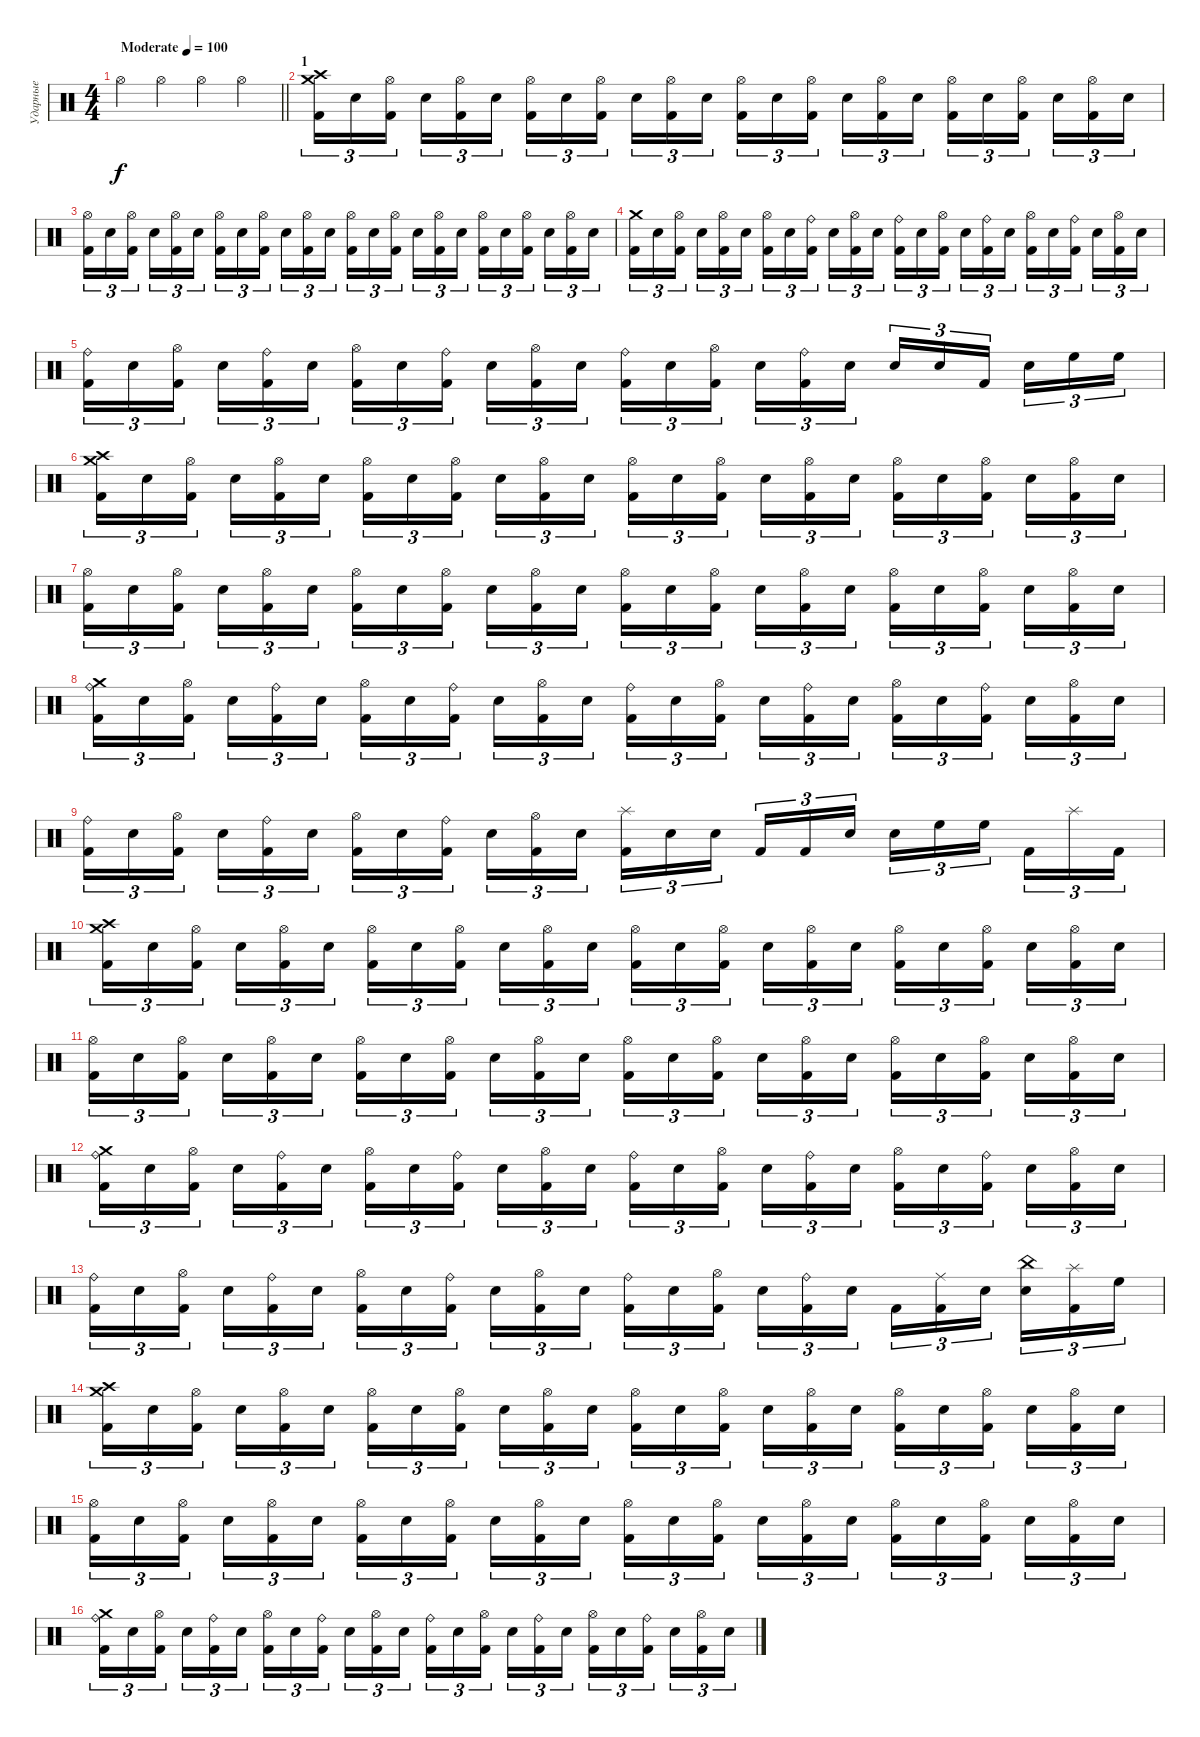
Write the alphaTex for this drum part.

\track ("Ударные" "Ударные") {instrument percussion}
\staff {score}
\articulation defaults
\ts (4 4)
\tempo (100 "Moderate")
\clef neutral
\barLineRight lightlight
\ks c "Hi-Hat (open)".4{dy f} "Hi-Hat (open)".4 "Hi-Hat (open)".4 "Hi-Hat (open)".4
|
\section ("" "1")
("Crash high (hit)" "Crash medium (hit)" "Kick (hit) 2").16{tu (3 2)} "Electric Snare (hit)".16{tu (3 2)} ("Hi-Hat (open)" "Kick (hit) 2").16{tu (3 2) beam splitsecondary} "Electric Snare (hit)".16{tu (3 2)} ("Hi-Hat (open)" "Kick (hit) 2").16{tu (3 2)} "Electric Snare (hit)".16{tu (3 2)} ("Hi-Hat (open)" "Kick (hit) 2").16{tu (3 2)} "Electric Snare (hit)".16{tu (3 2)} ("Hi-Hat (open)" "Kick (hit) 2").16{tu (3 2) beam splitsecondary} "Electric Snare (hit)".16{tu (3 2)} ("Hi-Hat (open)" "Kick (hit) 2").16{tu (3 2)} "Electric Snare (hit)".16{tu (3 2)} ("Hi-Hat (open)" "Kick (hit) 2").16{tu (3 2)} "Electric Snare (hit)".16{tu (3 2)} ("Hi-Hat (open)" "Kick (hit) 2").16{tu (3 2) beam splitsecondary} "Electric Snare (hit)".16{tu (3 2)} ("Hi-Hat (open)" "Kick (hit) 2").16{tu (3 2)} "Electric Snare (hit)".16{tu (3 2)} ("Hi-Hat (open)" "Kick (hit) 2").16{tu (3 2)} "Electric Snare (hit)".16{tu (3 2)} ("Hi-Hat (open)" "Kick (hit) 2").16{tu (3 2) beam splitsecondary} "Electric Snare (hit)".16{tu (3 2)} ("Hi-Hat (open)" "Kick (hit) 2").16{tu (3 2)} "Electric Snare (hit)".16{tu (3 2)} |
("Hi-Hat (open)" "Kick (hit) 2").16{tu (3 2)} "Electric Snare (hit)".16{tu (3 2)} ("Hi-Hat (open)" "Kick (hit) 2").16{tu (3 2) beam splitsecondary} "Electric Snare (hit)".16{tu (3 2)} ("Hi-Hat (open)" "Kick (hit) 2").16{tu (3 2)} "Electric Snare (hit)".16{tu (3 2)} ("Hi-Hat (open)" "Kick (hit) 2").16{tu (3 2)} "Electric Snare (hit)".16{tu (3 2)} ("Hi-Hat (open)" "Kick (hit) 2").16{tu (3 2) beam splitsecondary} "Electric Snare (hit)".16{tu (3 2)} ("Hi-Hat (open)" "Kick (hit) 2").16{tu (3 2)} "Electric Snare (hit)".16{tu (3 2)} ("Hi-Hat (open)" "Kick (hit) 2").16{tu (3 2)} "Electric Snare (hit)".16{tu (3 2)} ("Hi-Hat (open)" "Kick (hit) 2").16{tu (3 2) beam splitsecondary} "Electric Snare (hit)".16{tu (3 2)} ("Hi-Hat (open)" "Kick (hit) 2").16{tu (3 2)} "Electric Snare (hit)".16{tu (3 2)} ("Hi-Hat (open)" "Kick (hit) 2").16{tu (3 2)} "Electric Snare (hit)".16{tu (3 2)} ("Hi-Hat (open)" "Kick (hit) 2").16{tu (3 2) beam splitsecondary} "Electric Snare (hit)".16{tu (3 2)} ("Hi-Hat (open)" "Kick (hit) 2").16{tu (3 2)} "Electric Snare (hit)".16{tu (3 2)} |
("Crash medium (hit)" "Kick (hit) 2").16{tu (3 2)} "Electric Snare (hit)".16{tu (3 2)} ("Hi-Hat (open)" "Kick (hit) 2").16{tu (3 2) beam splitsecondary} "Electric Snare (hit)".16{tu (3 2)} ("Hi-Hat (open)" "Kick (hit) 2").16{tu (3 2)} "Electric Snare (hit)".16{tu (3 2)} ("Hi-Hat (open)" "Kick (hit) 2").16{tu (3 2)} "Electric Snare (hit)".16{tu (3 2)} ("Ride (bell)" "Kick (hit) 2").16{tu (3 2) beam splitsecondary} "Electric Snare (hit)".16{tu (3 2)} ("Hi-Hat (open)" "Kick (hit) 2").16{tu (3 2)} "Electric Snare (hit)".16{tu (3 2)} ("Ride (bell)" "Kick (hit) 2").16{tu (3 2)} "Electric Snare (hit)".16{tu (3 2)} ("Hi-Hat (open)" "Kick (hit) 2").16{tu (3 2) beam splitsecondary} "Electric Snare (hit)".16{tu (3 2)} ("Ride (bell)" "Kick (hit) 2").16{tu (3 2)} "Electric Snare (hit)".16{tu (3 2)} ("Hi-Hat (open)" "Kick (hit) 2").16{tu (3 2)} "Electric Snare (hit)".16{tu (3 2)} ("Ride (bell)" "Kick (hit) 2").16{tu (3 2) beam splitsecondary} "Electric Snare (hit)".16{tu (3 2)} ("Hi-Hat (open)" "Kick (hit) 2").16{tu (3 2)} "Electric Snare (hit)".16{tu (3 2)} |
("Ride (bell)" "Kick (hit) 2").16{tu (3 2)} "Electric Snare (hit)".16{tu (3 2)} ("Hi-Hat (open)" "Kick (hit) 2").16{tu (3 2) beam splitsecondary} "Electric Snare (hit)".16{tu (3 2)} ("Ride (bell)" "Kick (hit) 2").16{tu (3 2)} "Electric Snare (hit)".16{tu (3 2)} ("Hi-Hat (open)" "Kick (hit) 2").16{tu (3 2)} "Electric Snare (hit)".16{tu (3 2)} ("Ride (bell)" "Kick (hit) 2").16{tu (3 2) beam splitsecondary} "Electric Snare (hit)".16{tu (3 2)} ("Hi-Hat (open)" "Kick (hit) 2").16{tu (3 2)} "Electric Snare (hit)".16{tu (3 2)} ("Ride (bell)" "Kick (hit) 2").16{tu (3 2)} "Electric Snare (hit)".16{tu (3 2)} ("Hi-Hat (open)" "Kick (hit) 2").16{tu (3 2) beam splitsecondary} "Electric Snare (hit)".16{tu (3 2)} ("Ride (bell)" "Kick (hit) 2").16{tu (3 2)} "Electric Snare (hit)".16{tu (3 2)} "Electric Snare (hit)".16{tu (3 2)} "Electric Snare (hit)".16{tu (3 2)} "Kick (hit) 2".16{tu (3 2) beam splitsecondary} "Electric Snare (hit)".16{tu (3 2)} "High Floor Tom (hit)".16{tu (3 2)} "High Floor Tom (hit)".16{tu (3 2)} |
("Crash high (hit)" "Crash medium (hit)" "Kick (hit) 2").16{tu (3 2)} "Electric Snare (hit)".16{tu (3 2)} ("Hi-Hat (open)" "Kick (hit) 2").16{tu (3 2) beam splitsecondary} "Electric Snare (hit)".16{tu (3 2)} ("Hi-Hat (open)" "Kick (hit) 2").16{tu (3 2)} "Electric Snare (hit)".16{tu (3 2)} ("Hi-Hat (open)" "Kick (hit) 2").16{tu (3 2)} "Electric Snare (hit)".16{tu (3 2)} ("Hi-Hat (open)" "Kick (hit) 2").16{tu (3 2) beam splitsecondary} "Electric Snare (hit)".16{tu (3 2)} ("Hi-Hat (open)" "Kick (hit) 2").16{tu (3 2)} "Electric Snare (hit)".16{tu (3 2)} ("Hi-Hat (open)" "Kick (hit) 2").16{tu (3 2)} "Electric Snare (hit)".16{tu (3 2)} ("Hi-Hat (open)" "Kick (hit) 2").16{tu (3 2) beam splitsecondary} "Electric Snare (hit)".16{tu (3 2)} ("Hi-Hat (open)" "Kick (hit) 2").16{tu (3 2)} "Electric Snare (hit)".16{tu (3 2)} ("Hi-Hat (open)" "Kick (hit) 2").16{tu (3 2)} "Electric Snare (hit)".16{tu (3 2)} ("Hi-Hat (open)" "Kick (hit) 2").16{tu (3 2) beam splitsecondary} "Electric Snare (hit)".16{tu (3 2)} ("Hi-Hat (open)" "Kick (hit) 2").16{tu (3 2)} "Electric Snare (hit)".16{tu (3 2)} |
("Hi-Hat (open)" "Kick (hit) 2").16{tu (3 2)} "Electric Snare (hit)".16{tu (3 2)} ("Hi-Hat (open)" "Kick (hit) 2").16{tu (3 2) beam splitsecondary} "Electric Snare (hit)".16{tu (3 2)} ("Hi-Hat (open)" "Kick (hit) 2").16{tu (3 2)} "Electric Snare (hit)".16{tu (3 2)} ("Hi-Hat (open)" "Kick (hit) 2").16{tu (3 2)} "Electric Snare (hit)".16{tu (3 2)} ("Hi-Hat (open)" "Kick (hit) 2").16{tu (3 2) beam splitsecondary} "Electric Snare (hit)".16{tu (3 2)} ("Hi-Hat (open)" "Kick (hit) 2").16{tu (3 2)} "Electric Snare (hit)".16{tu (3 2)} ("Hi-Hat (open)" "Kick (hit) 2").16{tu (3 2)} "Electric Snare (hit)".16{tu (3 2)} ("Hi-Hat (open)" "Kick (hit) 2").16{tu (3 2) beam splitsecondary} "Electric Snare (hit)".16{tu (3 2)} ("Hi-Hat (open)" "Kick (hit) 2").16{tu (3 2)} "Electric Snare (hit)".16{tu (3 2)} ("Hi-Hat (open)" "Kick (hit) 2").16{tu (3 2)} "Electric Snare (hit)".16{tu (3 2)} ("Hi-Hat (open)" "Kick (hit) 2").16{tu (3 2) beam splitsecondary} "Electric Snare (hit)".16{tu (3 2)} ("Hi-Hat (open)" "Kick (hit) 2").16{tu (3 2)} "Electric Snare (hit)".16{tu (3 2)} |
("Ride (bell)" "Crash medium (hit)" "Kick (hit) 2").16{tu (3 2)} "Electric Snare (hit)".16{tu (3 2)} ("Hi-Hat (open)" "Kick (hit) 2").16{tu (3 2) beam splitsecondary} "Electric Snare (hit)".16{tu (3 2)} ("Ride (bell)" "Kick (hit) 2").16{tu (3 2)} "Electric Snare (hit)".16{tu (3 2)} ("Hi-Hat (open)" "Kick (hit) 2").16{tu (3 2)} "Electric Snare (hit)".16{tu (3 2)} ("Ride (bell)" "Kick (hit) 2").16{tu (3 2) beam splitsecondary} "Electric Snare (hit)".16{tu (3 2)} ("Hi-Hat (open)" "Kick (hit) 2").16{tu (3 2)} "Electric Snare (hit)".16{tu (3 2)} ("Ride (bell)" "Kick (hit) 2").16{tu (3 2)} "Electric Snare (hit)".16{tu (3 2)} ("Hi-Hat (open)" "Kick (hit) 2").16{tu (3 2) beam splitsecondary} "Electric Snare (hit)".16{tu (3 2)} ("Ride (bell)" "Kick (hit) 2").16{tu (3 2)} "Electric Snare (hit)".16{tu (3 2)} ("Hi-Hat (open)" "Kick (hit) 2").16{tu (3 2)} "Electric Snare (hit)".16{tu (3 2)} ("Ride (bell)" "Kick (hit) 2").16{tu (3 2) beam splitsecondary} "Electric Snare (hit)".16{tu (3 2)} ("Hi-Hat (open)" "Kick (hit) 2").16{tu (3 2)} "Electric Snare (hit)".16{tu (3 2)} |
("Ride (bell)" "Kick (hit) 2").16{tu (3 2)} "Electric Snare (hit)".16{tu (3 2)} ("Hi-Hat (open)" "Kick (hit) 2").16{tu (3 2) beam splitsecondary} "Electric Snare (hit)".16{tu (3 2)} ("Ride (bell)" "Kick (hit) 2").16{tu (3 2)} "Electric Snare (hit)".16{tu (3 2)} ("Hi-Hat (open)" "Kick (hit) 2").16{tu (3 2)} "Electric Snare (hit)".16{tu (3 2)} ("Ride (bell)" "Kick (hit) 2").16{tu (3 2) beam splitsecondary} "Electric Snare (hit)".16{tu (3 2)} ("Hi-Hat (open)" "Kick (hit) 2").16{tu (3 2)} "Electric Snare (hit)".16{tu (3 2)} ("Splash (hit)" "Kick (hit) 2").16{tu (3 2)} "Electric Snare (hit)".16{tu (3 2)} "Electric Snare (hit)".16{tu (3 2) beam splitsecondary} "Kick (hit) 2".16{tu (3 2)} "Kick (hit) 2".16{tu (3 2)} "Electric Snare (hit)".16{tu (3 2)} "Electric Snare (hit)".16{tu (3 2)} "High Floor Tom (hit)".16{tu (3 2)} "High Floor Tom (hit)".16{tu (3 2) beam splitsecondary} "Kick (hit) 2".16{tu (3 2)} "Splash (hit)".16{tu (3 2)} "Kick (hit) 2".16{tu (3 2)} |
("Crash high (hit)" "Crash medium (hit)" "Kick (hit) 2").16{tu (3 2)} "Electric Snare (hit)".16{tu (3 2)} ("Hi-Hat (open)" "Kick (hit) 2").16{tu (3 2) beam splitsecondary} "Electric Snare (hit)".16{tu (3 2)} ("Hi-Hat (open)" "Kick (hit) 2").16{tu (3 2)} "Electric Snare (hit)".16{tu (3 2)} ("Hi-Hat (open)" "Kick (hit) 2").16{tu (3 2)} "Electric Snare (hit)".16{tu (3 2)} ("Hi-Hat (open)" "Kick (hit) 2").16{tu (3 2) beam splitsecondary} "Electric Snare (hit)".16{tu (3 2)} ("Hi-Hat (open)" "Kick (hit) 2").16{tu (3 2)} "Electric Snare (hit)".16{tu (3 2)} ("Hi-Hat (open)" "Kick (hit) 2").16{tu (3 2)} "Electric Snare (hit)".16{tu (3 2)} ("Hi-Hat (open)" "Kick (hit) 2").16{tu (3 2) beam splitsecondary} "Electric Snare (hit)".16{tu (3 2)} ("Hi-Hat (open)" "Kick (hit) 2").16{tu (3 2)} "Electric Snare (hit)".16{tu (3 2)} ("Hi-Hat (open)" "Kick (hit) 2").16{tu (3 2)} "Electric Snare (hit)".16{tu (3 2)} ("Hi-Hat (open)" "Kick (hit) 2").16{tu (3 2) beam splitsecondary} "Electric Snare (hit)".16{tu (3 2)} ("Hi-Hat (open)" "Kick (hit) 2").16{tu (3 2)} "Electric Snare (hit)".16{tu (3 2)} |
("Hi-Hat (open)" "Kick (hit) 2").16{tu (3 2)} "Electric Snare (hit)".16{tu (3 2)} ("Hi-Hat (open)" "Kick (hit) 2").16{tu (3 2) beam splitsecondary} "Electric Snare (hit)".16{tu (3 2)} ("Hi-Hat (open)" "Kick (hit) 2").16{tu (3 2)} "Electric Snare (hit)".16{tu (3 2)} ("Hi-Hat (open)" "Kick (hit) 2").16{tu (3 2)} "Electric Snare (hit)".16{tu (3 2)} ("Hi-Hat (open)" "Kick (hit) 2").16{tu (3 2) beam splitsecondary} "Electric Snare (hit)".16{tu (3 2)} ("Hi-Hat (open)" "Kick (hit) 2").16{tu (3 2)} "Electric Snare (hit)".16{tu (3 2)} ("Hi-Hat (open)" "Kick (hit) 2").16{tu (3 2)} "Electric Snare (hit)".16{tu (3 2)} ("Hi-Hat (open)" "Kick (hit) 2").16{tu (3 2) beam splitsecondary} "Electric Snare (hit)".16{tu (3 2)} ("Hi-Hat (open)" "Kick (hit) 2").16{tu (3 2)} "Electric Snare (hit)".16{tu (3 2)} ("Hi-Hat (open)" "Kick (hit) 2").16{tu (3 2)} "Electric Snare (hit)".16{tu (3 2)} ("Hi-Hat (open)" "Kick (hit) 2").16{tu (3 2) beam splitsecondary} "Electric Snare (hit)".16{tu (3 2)} ("Hi-Hat (open)" "Kick (hit) 2").16{tu (3 2)} "Electric Snare (hit)".16{tu (3 2)} |
("Ride (bell)" "Crash medium (hit)" "Kick (hit) 2").16{tu (3 2)} "Electric Snare (hit)".16{tu (3 2)} ("Hi-Hat (open)" "Kick (hit) 2").16{tu (3 2) beam splitsecondary} "Electric Snare (hit)".16{tu (3 2)} ("Ride (bell)" "Kick (hit) 2").16{tu (3 2)} "Electric Snare (hit)".16{tu (3 2)} ("Hi-Hat (open)" "Kick (hit) 2").16{tu (3 2)} "Electric Snare (hit)".16{tu (3 2)} ("Ride (bell)" "Kick (hit) 2").16{tu (3 2) beam splitsecondary} "Electric Snare (hit)".16{tu (3 2)} ("Hi-Hat (open)" "Kick (hit) 2").16{tu (3 2)} "Electric Snare (hit)".16{tu (3 2)} ("Ride (bell)" "Kick (hit) 2").16{tu (3 2)} "Electric Snare (hit)".16{tu (3 2)} ("Hi-Hat (open)" "Kick (hit) 2").16{tu (3 2) beam splitsecondary} "Electric Snare (hit)".16{tu (3 2)} ("Ride (bell)" "Kick (hit) 2").16{tu (3 2)} "Electric Snare (hit)".16{tu (3 2)} ("Hi-Hat (open)" "Kick (hit) 2").16{tu (3 2)} "Electric Snare (hit)".16{tu (3 2)} ("Ride (bell)" "Kick (hit) 2").16{tu (3 2) beam splitsecondary} "Electric Snare (hit)".16{tu (3 2)} ("Hi-Hat (open)" "Kick (hit) 2").16{tu (3 2)} "Electric Snare (hit)".16{tu (3 2)} |
("Ride (bell)" "Kick (hit) 2").16{tu (3 2)} "Electric Snare (hit)".16{tu (3 2)} ("Hi-Hat (open)" "Kick (hit) 2").16{tu (3 2) beam splitsecondary} "Electric Snare (hit)".16{tu (3 2)} ("Ride (bell)" "Kick (hit) 2").16{tu (3 2)} "Electric Snare (hit)".16{tu (3 2)} ("Hi-Hat (open)" "Kick (hit) 2").16{tu (3 2)} "Electric Snare (hit)".16{tu (3 2)} ("Ride (bell)" "Kick (hit) 2").16{tu (3 2) beam splitsecondary} "Electric Snare (hit)".16{tu (3 2)} ("Hi-Hat (open)" "Kick (hit) 2").16{tu (3 2)} "Electric Snare (hit)".16{tu (3 2)} ("Ride (bell)" "Kick (hit) 2").16{tu (3 2)} "Electric Snare (hit)".16{tu (3 2)} ("Hi-Hat (open)" "Kick (hit) 2").16{tu (3 2) beam splitsecondary} "Electric Snare (hit)".16{tu (3 2)} ("Ride (bell)" "Kick (hit) 2").16{tu (3 2)} "Electric Snare (hit)".16{tu (3 2)} "Kick (hit) 2".16{tu (3 2)} ("Ride (middle)" "Kick (hit) 2").16{tu (3 2)} "Electric Snare (hit)".16{tu (3 2) beam splitsecondary} ("China (hit)" "Electric Snare (hit)").16{tu (3 2)} ("Splash (hit)" "Kick (hit) 2").16{tu (3 2)} "High Floor Tom (hit)".16{tu (3 2)} |
("Crash high (hit)" "Crash medium (hit)" "Kick (hit) 2").16{tu (3 2)} "Electric Snare (hit)".16{tu (3 2)} ("Hi-Hat (open)" "Kick (hit) 2").16{tu (3 2) beam splitsecondary} "Electric Snare (hit)".16{tu (3 2)} ("Hi-Hat (open)" "Kick (hit) 2").16{tu (3 2)} "Electric Snare (hit)".16{tu (3 2)} ("Hi-Hat (open)" "Kick (hit) 2").16{tu (3 2)} "Electric Snare (hit)".16{tu (3 2)} ("Hi-Hat (open)" "Kick (hit) 2").16{tu (3 2) beam splitsecondary} "Electric Snare (hit)".16{tu (3 2)} ("Hi-Hat (open)" "Kick (hit) 2").16{tu (3 2)} "Electric Snare (hit)".16{tu (3 2)} ("Hi-Hat (open)" "Kick (hit) 2").16{tu (3 2)} "Electric Snare (hit)".16{tu (3 2)} ("Hi-Hat (open)" "Kick (hit) 2").16{tu (3 2) beam splitsecondary} "Electric Snare (hit)".16{tu (3 2)} ("Hi-Hat (open)" "Kick (hit) 2").16{tu (3 2)} "Electric Snare (hit)".16{tu (3 2)} ("Hi-Hat (open)" "Kick (hit) 2").16{tu (3 2)} "Electric Snare (hit)".16{tu (3 2)} ("Hi-Hat (open)" "Kick (hit) 2").16{tu (3 2) beam splitsecondary} "Electric Snare (hit)".16{tu (3 2)} ("Hi-Hat (open)" "Kick (hit) 2").16{tu (3 2)} "Electric Snare (hit)".16{tu (3 2)} |
("Hi-Hat (open)" "Kick (hit) 2").16{tu (3 2)} "Electric Snare (hit)".16{tu (3 2)} ("Hi-Hat (open)" "Kick (hit) 2").16{tu (3 2) beam splitsecondary} "Electric Snare (hit)".16{tu (3 2)} ("Hi-Hat (open)" "Kick (hit) 2").16{tu (3 2)} "Electric Snare (hit)".16{tu (3 2)} ("Hi-Hat (open)" "Kick (hit) 2").16{tu (3 2)} "Electric Snare (hit)".16{tu (3 2)} ("Hi-Hat (open)" "Kick (hit) 2").16{tu (3 2) beam splitsecondary} "Electric Snare (hit)".16{tu (3 2)} ("Hi-Hat (open)" "Kick (hit) 2").16{tu (3 2)} "Electric Snare (hit)".16{tu (3 2)} ("Hi-Hat (open)" "Kick (hit) 2").16{tu (3 2)} "Electric Snare (hit)".16{tu (3 2)} ("Hi-Hat (open)" "Kick (hit) 2").16{tu (3 2) beam splitsecondary} "Electric Snare (hit)".16{tu (3 2)} ("Hi-Hat (open)" "Kick (hit) 2").16{tu (3 2)} "Electric Snare (hit)".16{tu (3 2)} ("Hi-Hat (open)" "Kick (hit) 2").16{tu (3 2)} "Electric Snare (hit)".16{tu (3 2)} ("Hi-Hat (open)" "Kick (hit) 2").16{tu (3 2) beam splitsecondary} "Electric Snare (hit)".16{tu (3 2)} ("Hi-Hat (open)" "Kick (hit) 2").16{tu (3 2)} "Electric Snare (hit)".16{tu (3 2)} |
("Ride (bell)" "Crash medium (hit)" "Kick (hit) 2").16{tu (3 2)} "Electric Snare (hit)".16{tu (3 2)} ("Hi-Hat (open)" "Kick (hit) 2").16{tu (3 2) beam splitsecondary} "Electric Snare (hit)".16{tu (3 2)} ("Ride (bell)" "Kick (hit) 2").16{tu (3 2)} "Electric Snare (hit)".16{tu (3 2)} ("Hi-Hat (open)" "Kick (hit) 2").16{tu (3 2)} "Electric Snare (hit)".16{tu (3 2)} ("Ride (bell)" "Kick (hit) 2").16{tu (3 2) beam splitsecondary} "Electric Snare (hit)".16{tu (3 2)} ("Hi-Hat (open)" "Kick (hit) 2").16{tu (3 2)} "Electric Snare (hit)".16{tu (3 2)} ("Ride (bell)" "Kick (hit) 2").16{tu (3 2)} "Electric Snare (hit)".16{tu (3 2)} ("Hi-Hat (open)" "Kick (hit) 2").16{tu (3 2) beam splitsecondary} "Electric Snare (hit)".16{tu (3 2)} ("Ride (bell)" "Kick (hit) 2").16{tu (3 2)} "Electric Snare (hit)".16{tu (3 2)} ("Hi-Hat (open)" "Kick (hit) 2").16{tu (3 2)} "Electric Snare (hit)".16{tu (3 2)} ("Ride (bell)" "Kick (hit) 2").16{tu (3 2) beam splitsecondary} "Electric Snare (hit)".16{tu (3 2)} ("Hi-Hat (open)" "Kick (hit) 2").16{tu (3 2)} "Electric Snare (hit)".16{tu (3 2)}
